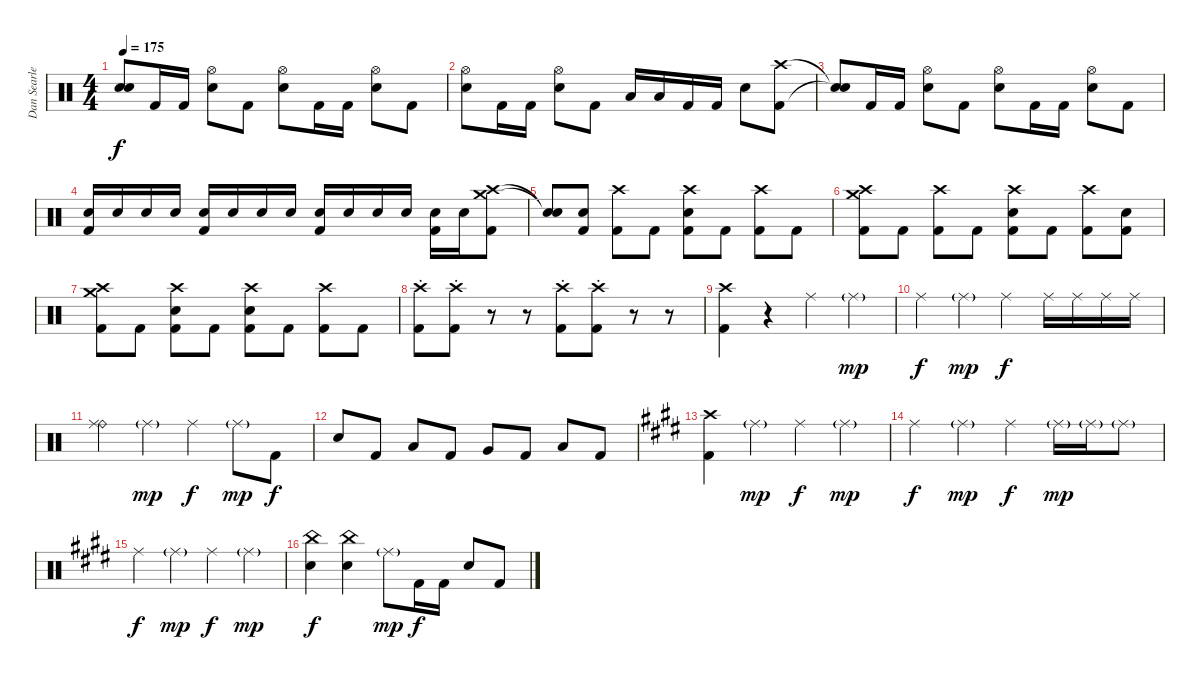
\track ("Dan Searle" "Dan Searle") {instrument percussion}
\staff {score}
\articulation defaults
\ts (4 4)
\tempo 175
\clef neutral
\ks c
("Snare (hit)"{t} "Snare (hit)"{t}).8{dy f} "Kick (hit) 2".16 "Kick (hit) 2".16 ("Hi-Hat (open)" "Snare (hit) 2").8 "Kick (hit) 2".8 ("Hi-Hat (open)" "Snare (hit) 2").8 "Kick (hit) 2".16 "Kick (hit) 2".16 ("Hi-Hat (open)" "Snare (hit) 2").8 "Kick (hit) 2".8 |
("Hi-Hat (open)" "Snare (hit) 2").8 "Kick (hit) 2".16 "Kick (hit) 2".16 ("Hi-Hat (open)" "Snare (hit) 2").8 "Kick (hit) 2".8 "Low Floor Tom (hit)".16 "Low Floor Tom (hit)".16 "Kick (hit) 2".16 "Kick (hit) 2".16 "Snare (hit) 2".8 ("Crash high (hit)" "Kick (hit) 2").8 |
("Snare (hit)"{t} "Snare (hit)"{t}).8 "Kick (hit) 2".16 "Kick (hit) 2".16 ("Hi-Hat (open)" "Snare (hit) 2").8 "Kick (hit) 2".8 ("Hi-Hat (open)" "Snare (hit) 2").8 "Kick (hit) 2".16 "Kick (hit) 2".16 ("Hi-Hat (open)" "Snare (hit) 2").8 "Kick (hit) 2".8 |
("Snare (hit) 2" "Kick (hit) 2").16 "Snare (hit) 2".16 "Snare (hit) 2".16 "Snare (hit) 2".16 ("Snare (hit) 2" "Kick (hit) 2").16 "Snare (hit) 2".16 "Snare (hit) 2".16 "Snare (hit) 2".16 ("Snare (hit) 2" "Kick (hit) 2").16 "Snare (hit) 2".16 "Snare (hit) 2".16 "Snare (hit) 2".16 ("Snare (hit) 2" "Kick (hit) 2").16 "Snare (hit) 2".16 ("Crash high (hit)" "Crash medium (hit)" "Kick (hit) 2").8 |
("Snare (hit)"{t} "Snare (hit)"{t}).8 ("Snare (hit) 2" "Kick (hit) 2").8 ("Crash high (hit)" "Kick (hit) 2").8 "Kick (hit) 2".8 ("Crash high (hit)" "Snare (hit) 2" "Kick (hit) 2").8 "Kick (hit) 2".8 ("Crash high (hit)" "Kick (hit) 2").8 "Kick (hit) 2".8 |
("Crash high (hit)" "Crash medium (hit)" "Kick (hit) 2").8 "Kick (hit) 2".8 ("Crash high (hit)" "Kick (hit) 2").8 "Kick (hit) 2".8 ("Crash high (hit)" "Snare (hit) 2" "Kick (hit) 2").8 "Kick (hit) 2".8 ("Crash high (hit)" "Kick (hit) 2").8 ("Snare (hit) 2" "Kick (hit) 2").8 |
("Crash high (hit)" "Crash medium (hit)" "Kick (hit) 2").8 "Kick (hit) 2".8 ("Crash high (hit)" "Snare (hit) 2" "Kick (hit) 2").8 "Kick (hit) 2".8 ("Crash high (hit)" "Snare (hit) 2" "Kick (hit) 2").8 "Kick (hit) 2".8 ("Crash high (hit)" "Kick (hit) 2").8 "Kick (hit) 2".8 |
("Crash high (hit)"{st} "Kick (hit) 2").8 ("Crash high (hit)"{st} "Kick (hit) 2").8 r.8 r.8 ("Crash high (hit)"{st} "Kick (hit) 2").8 ("Crash high (hit)"{st} "Kick (hit) 2").8 r.8 r.8 |
("Crash high (hit)" "Kick (hit) 2").4 r.4 "Ride (middle)".4 "Ride (middle)"{g}.4{dy mp} |
"Ride (middle)".4{dy f} "Ride (middle)"{g}.4{dy mp} "Ride (middle)".4{dy f} "Ride (middle)".16 "Ride (middle)".16 "Ride (middle)".16 "Ride (middle)".16 |
("Ride (bell)" "Ride (middle)").4 "Ride (middle)"{g}.4{dy mp} "Ride (middle)".4{dy f} "Ride (middle)"{g}.8{dy mp} "Kick (hit) 2".8{dy f} |
"Snare (hit) 2".8 "Kick (hit) 2".8 "Low Tom (hit)".8 "Kick (hit) 2".8 "Very Low Tom (hit)".8 "Kick (hit) 2".8 "Low Floor Tom (hit)".8 "Kick (hit) 2".8 |
\ks e
("Crash high (hit)" "Kick (hit) 2").4 "Ride (middle)"{g}.4{dy mp} "Ride (middle)".4{dy f} "Ride (middle)"{g}.4{dy mp} |
"Ride (middle)".4{dy f} "Ride (middle)"{g}.4{dy mp} "Ride (middle)".4{dy f} "Ride (middle)"{g}.16{dy mp} "Ride (middle)"{g}.16 "Ride (middle)"{g}.8 |
"Ride (middle)".4{dy f} "Ride (middle)"{g}.4{dy mp} "Ride (middle)".4{dy f} "Ride (middle)"{g}.4{dy mp} |
("China (hit)" "Snare (hit) 2").4{dy f} ("China (hit)" "Snare (hit) 2").4 "Ride (middle)"{g}.8{dy mp} "Kick (hit) 2".16{dy f} "Kick (hit) 2".16 "Snare (hit) 2".8 "Kick (hit) 2".8
